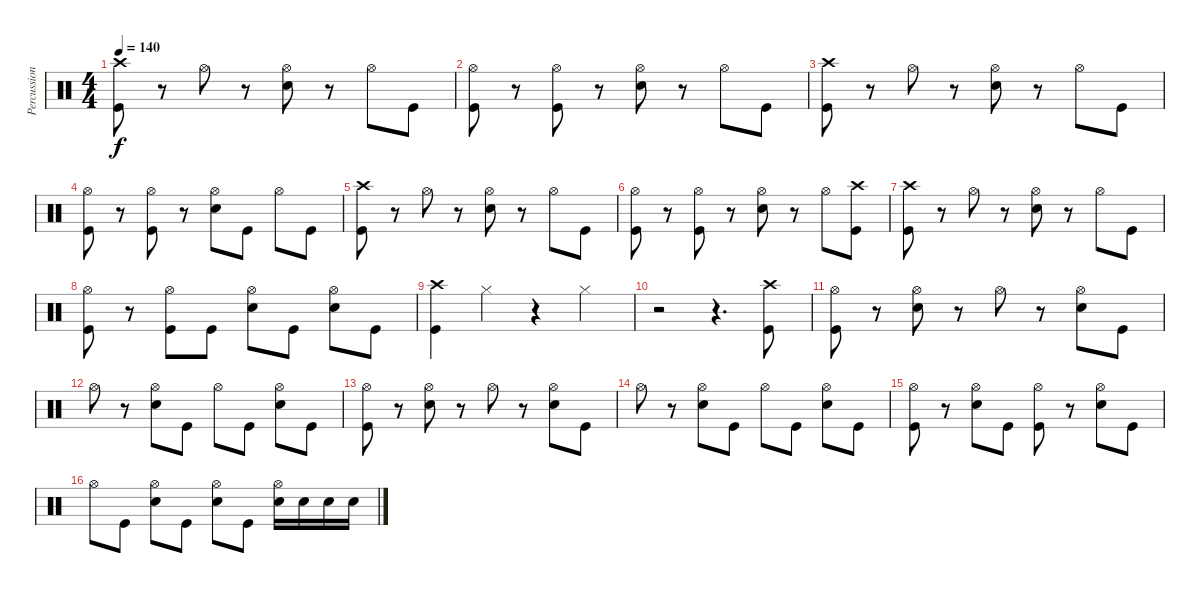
\track ("Percussion" "Percussion") {instrument percussion}
\staff {score}
\articulation defaults
\ts (4 4)
\tempo 140
\clef neutral
\ks c
("Crash high (hit)" "Kick (hit)").8{dy f} r.8 "Hi-Hat (open)".8 r.8 ("Hi-Hat (open)" "Snare (hit) 2").8 r.8 "Hi-Hat (open)".8 "Kick (hit)".8 |
("Hi-Hat (open)" "Kick (hit)").8 r.8 ("Hi-Hat (open)" "Kick (hit)").8 r.8 ("Hi-Hat (open)" "Snare (hit) 2").8 r.8 "Hi-Hat (open)".8 "Kick (hit)".8 |
("Crash high (hit)" "Kick (hit)").8 r.8 "Hi-Hat (open)".8 r.8 ("Hi-Hat (open)" "Snare (hit) 2").8 r.8 "Hi-Hat (open)".8 "Kick (hit)".8 |
("Hi-Hat (open)" "Kick (hit)").8 r.8 ("Hi-Hat (open)" "Kick (hit)").8 r.8 ("Hi-Hat (open)" "Snare (hit) 2").8 "Kick (hit)".8 "Hi-Hat (open)".8 "Kick (hit)".8 |
("Crash high (hit)" "Kick (hit)").8 r.8 "Hi-Hat (open)".8 r.8 ("Hi-Hat (open)" "Snare (hit) 2").8 r.8 "Hi-Hat (open)".8 "Kick (hit)".8 |
("Hi-Hat (open)" "Kick (hit)").8 r.8 ("Hi-Hat (open)" "Kick (hit)").8 r.8 ("Hi-Hat (open)" "Snare (hit) 2").8 r.8 "Hi-Hat (open)".8 ("Crash high (hit)" "Kick (hit)").8 |
("Crash high (hit)" "Kick (hit)").8 r.8 "Hi-Hat (open)".8 r.8 ("Hi-Hat (open)" "Snare (hit) 2").8 r.8 "Hi-Hat (open)".8 "Kick (hit)".8 |
("Hi-Hat (open)" "Kick (hit)").8 r.8 ("Hi-Hat (open)" "Kick (hit)").8 "Kick (hit)".8 ("Hi-Hat (open)" "Snare (hit) 2").8 "Kick (hit)".8 ("Hi-Hat (open)" "Snare (hit) 2").8 "Kick (hit)".8 |
("Crash high (hit)" "Kick (hit)").4 "Hi-Hat (closed)".4 r.4 "Hi-Hat (closed)".4 |
r.2 r.4{d} ("Crash high (hit)" "Kick (hit)").8 |
("Hi-Hat (open)" "Kick (hit)").8 r.8 ("Hi-Hat (open)" "Snare (hit) 2").8 r.8 "Hi-Hat (open)".8 r.8 ("Hi-Hat (open)" "Snare (hit) 2").8 "Kick (hit)".8 |
"Hi-Hat (open)".8 r.8 ("Hi-Hat (open)" "Snare (hit) 2").8 "Kick (hit)".8 "Hi-Hat (open)".8 "Kick (hit)".8 ("Hi-Hat (open)" "Snare (hit) 2").8 "Kick (hit)".8 |
("Hi-Hat (open)" "Kick (hit)").8 r.8 ("Hi-Hat (open)" "Snare (hit) 2").8 r.8 "Hi-Hat (open)".8 r.8 ("Hi-Hat (open)" "Snare (hit) 2").8 "Kick (hit)".8 |
"Hi-Hat (open)".8 r.8 ("Hi-Hat (open)" "Snare (hit) 2").8 "Kick (hit)".8 "Hi-Hat (open)".8 "Kick (hit)".8 ("Hi-Hat (open)" "Snare (hit) 2").8 "Kick (hit)".8 |
("Hi-Hat (open)" "Kick (hit)").8 r.8 ("Hi-Hat (open)" "Snare (hit) 2").8 "Kick (hit)".8 ("Hi-Hat (open)" "Kick (hit)").8 r.8 ("Hi-Hat (open)" "Snare (hit) 2").8 "Kick (hit)".8 |
"Hi-Hat (open)".8 "Kick (hit)".8 ("Hi-Hat (open)" "Snare (hit) 2").8 "Kick (hit)".8 ("Hi-Hat (open)" "Snare (hit) 2").8 "Kick (hit)".8 ("Hi-Hat (open)" "Snare (hit) 2").16 "Snare (hit) 2".16 "Snare (hit) 2".16 "Snare (hit) 2".16
